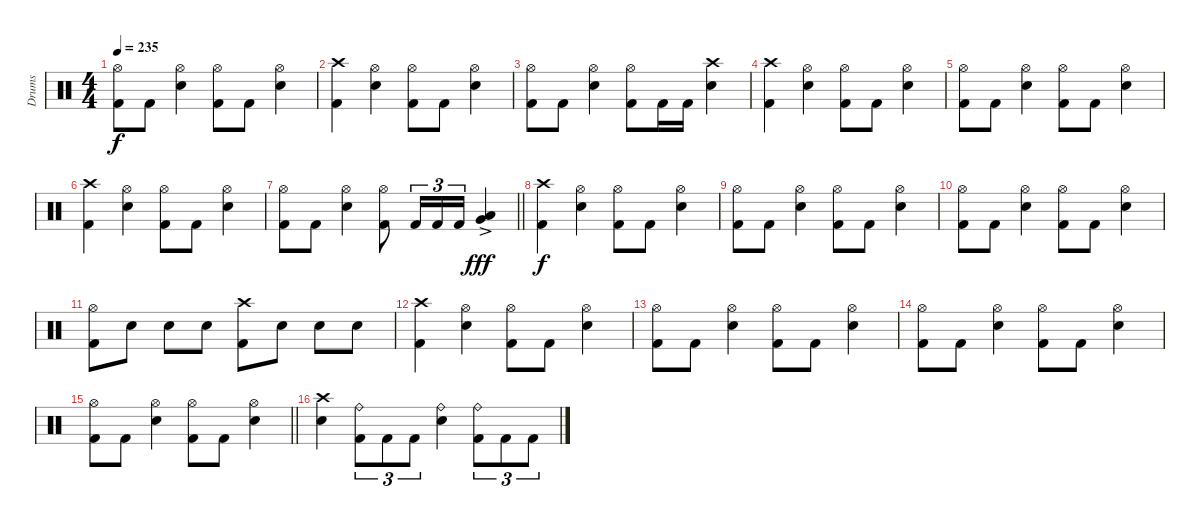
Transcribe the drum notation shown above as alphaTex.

\track ("Drums" "Drums") {instrument percussion}
\staff {score}
\articulation defaults
\ts (4 4)
\tempo 235
\clef neutral
\ks c
("Hi-Hat (open)" "Kick (hit) 2").8{dy f} "Kick (hit) 2".8 ("Hi-Hat (open)" "Snare (hit) 2").4 ("Hi-Hat (open)" "Kick (hit) 2").8 "Kick (hit) 2".8 ("Hi-Hat (open)" "Snare (hit) 2").4 |
("Crash high (hit)" "Kick (hit) 2").4 ("Hi-Hat (open)" "Snare (hit) 2").4 ("Hi-Hat (open)" "Kick (hit) 2").8 "Kick (hit) 2".8 ("Hi-Hat (open)" "Snare (hit) 2").4 |
("Hi-Hat (open)" "Kick (hit) 2").8 "Kick (hit) 2".8 ("Hi-Hat (open)" "Snare (hit) 2").4 ("Hi-Hat (open)" "Kick (hit) 2").8 "Kick (hit) 2".16 "Kick (hit) 2".16 ("Crash high (hit)" "Snare (hit) 2").4 |
("Crash high (hit)" "Kick (hit) 2").4 ("Hi-Hat (open)" "Snare (hit) 2").4 ("Hi-Hat (open)" "Kick (hit) 2").8 "Kick (hit) 2".8 ("Hi-Hat (open)" "Snare (hit) 2").4 |
("Hi-Hat (open)" "Kick (hit) 2").8 "Kick (hit) 2".8 ("Hi-Hat (open)" "Snare (hit) 2").4 ("Hi-Hat (open)" "Kick (hit) 2").8 "Kick (hit) 2".8 ("Hi-Hat (open)" "Snare (hit) 2").4 |
("Crash high (hit)" "Kick (hit) 2").4 ("Hi-Hat (open)" "Snare (hit) 2").4 ("Hi-Hat (open)" "Kick (hit) 2").8 "Kick (hit) 2".8 ("Hi-Hat (open)" "Snare (hit) 2").4 |
\barLineRight lightlight
("Hi-Hat (open)" "Kick (hit) 2").8 "Kick (hit) 2".8 ("Hi-Hat (open)" "Snare (hit) 2").4 ("Hi-Hat (open)" "Kick (hit) 2").8 "Kick (hit) 2".16{tu (3 2)} "Kick (hit) 2".16{tu (3 2)} "Kick (hit) 2".16{tu (3 2)} ("Low Tom (hit)"{ac} "Very Low Tom (hit)"{ac}).4{dy fff} |
("Crash high (hit)" "Kick (hit) 2").4{dy f} ("Hi-Hat (open)" "Snare (hit) 2").4 ("Hi-Hat (open)" "Kick (hit) 2").8 "Kick (hit) 2".8 ("Hi-Hat (open)" "Snare (hit) 2").4 |
("Hi-Hat (open)" "Kick (hit) 2").8 "Kick (hit) 2".8 ("Hi-Hat (open)" "Snare (hit) 2").4 ("Hi-Hat (open)" "Kick (hit) 2").8 "Kick (hit) 2".8 ("Hi-Hat (open)" "Snare (hit) 2").4 |
("Hi-Hat (open)" "Kick (hit) 2").8 "Kick (hit) 2".8 ("Hi-Hat (open)" "Snare (hit) 2").4 ("Hi-Hat (open)" "Kick (hit) 2").8 "Kick (hit) 2".8 ("Hi-Hat (open)" "Snare (hit) 2").4 |
("Hi-Hat (open)" "Kick (hit) 2").8 "Snare (hit) 2".8 "Snare (hit) 2".8 "Snare (hit) 2".8 ("Crash high (hit)" "Kick (hit) 2").8 "Snare (hit) 2".8 "Snare (hit) 2".8 "Snare (hit) 2".8 |
("Crash high (hit)" "Kick (hit) 2").4 ("Hi-Hat (open)" "Snare (hit) 2").4 ("Hi-Hat (open)" "Kick (hit) 2").8 "Kick (hit) 2".8 ("Hi-Hat (open)" "Snare (hit) 2").4 |
("Hi-Hat (open)" "Kick (hit) 2").8 "Kick (hit) 2".8 ("Hi-Hat (open)" "Snare (hit) 2").4 ("Hi-Hat (open)" "Kick (hit) 2").8 "Kick (hit) 2".8 ("Hi-Hat (open)" "Snare (hit) 2").4 |
("Hi-Hat (open)" "Kick (hit) 2").8 "Kick (hit) 2".8 ("Hi-Hat (open)" "Snare (hit) 2").4 ("Hi-Hat (open)" "Kick (hit) 2").8 "Kick (hit) 2".8 ("Hi-Hat (open)" "Snare (hit) 2").4 |
\barLineRight lightlight
("Hi-Hat (open)" "Kick (hit) 2").8 "Kick (hit) 2".8 ("Hi-Hat (open)" "Snare (hit) 2").4 ("Hi-Hat (open)" "Kick (hit) 2").8 "Kick (hit) 2".8 ("Hi-Hat (open)" "Snare (hit) 2").4 |
("Crash high (hit)" "Snare (hit) 2").4 ("Ride (bell)" "Kick (hit) 2").8{tu (3 2)} "Kick (hit) 2".8{tu (3 2)} "Kick (hit) 2".8{tu (3 2)} ("Ride (bell)" "Snare (hit) 2").4 ("Ride (bell)" "Kick (hit) 2").8{tu (3 2)} "Kick (hit) 2".8{tu (3 2)} "Kick (hit) 2".8{tu (3 2)}
